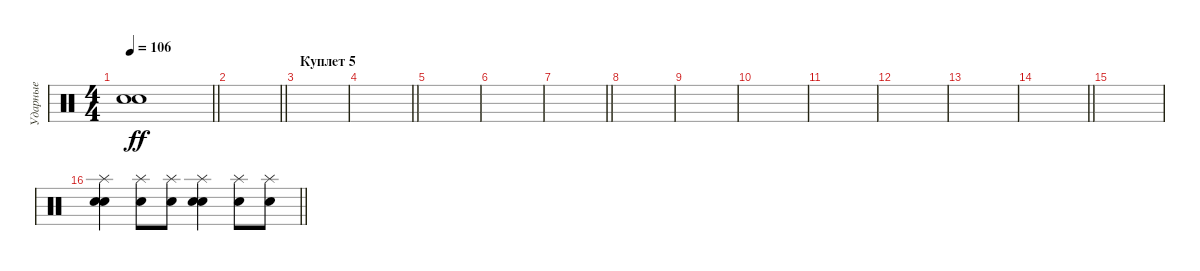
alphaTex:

\track ("Ударные" "Ударные") {instrument percussion}
\staff {score}
\articulation defaults
\ts (4 4)
\tempo 106
\clef neutral
\barLineRight lightlight
\ks c
("Snare (hit) 2" "Electric Snare (hit)").1{dy ff} |
\barLineRight lightlight
|
\section ("" "Куплет 5")
|
\barLineRight lightlight
|
|
|
\barLineRight lightlight
|
|
|
|
|
|
|
\barLineRight lightlight
|
|
\barLineRight lightlight
("Snare (hit) 2" "Electric Snare (hit)" "Splash (hit)").4 ("Electric Snare (hit)" "Splash (hit)").8 ("Electric Snare (hit)" "Splash (hit)").8 ("Snare (hit) 2" "Electric Snare (hit)" "Splash (hit)").4 ("Electric Snare (hit)" "Splash (hit)").8 ("Electric Snare (hit)" "Splash (hit)").8
